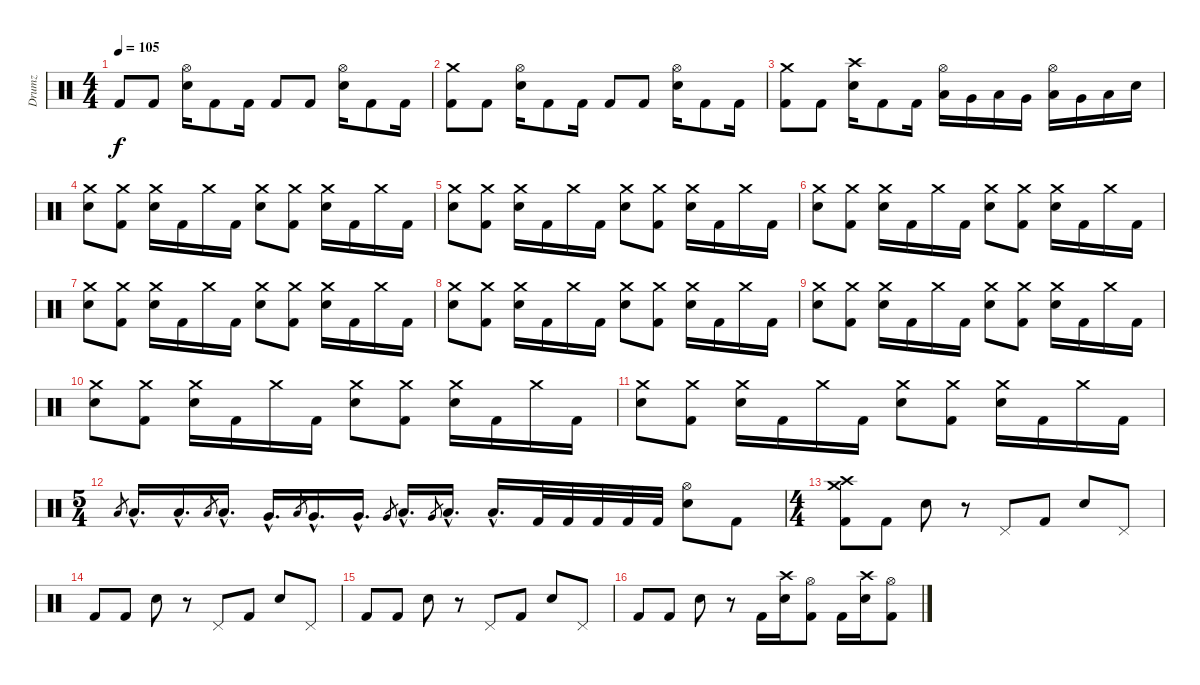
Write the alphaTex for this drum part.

\track ("Drumz" "Drumz") {instrument percussion}
\staff {score}
\articulation defaults
\ts (4 4)
\tempo 105
\clef neutral
\ks c "Kick (hit) 2".8{dy f} "Kick (hit) 2".8
("Hi-Hat (open)" "Electric Snare (hit)").16 "Kick (hit) 2".8 "Kick (hit) 2".16 "Kick (hit) 2".8 "Kick (hit) 2".8 ("Hi-Hat (open)" "Electric Snare (hit)").16 "Kick (hit) 2".8 "Kick (hit) 2".16 |
("Crash medium (hit)" "Kick (hit) 2").8 "Kick (hit) 2".8 ("Hi-Hat (open)" "Electric Snare (hit)").16 "Kick (hit) 2".8 "Kick (hit) 2".16 "Kick (hit) 2".8 "Kick (hit) 2".8 ("Hi-Hat (open)" "Electric Snare (hit)").16 "Kick (hit) 2".8 "Kick (hit) 2".16 |
("Crash medium (hit)" "Kick (hit) 2").8 "Kick (hit) 2".8 ("Crash high (hit)" "Electric Snare (hit)").16 "Kick (hit) 2".8 "Kick (hit) 2".16 ("Hi-Hat (open)" "Low Tom (hit)").16 "Very Low Tom (hit)".16 "Low Floor Tom (hit)".16 "Very Low Tom (hit)".16 ("Hi-Hat (open)" "Low Tom (hit)").16 "Very Low Tom (hit)".16 "Low Floor Tom (hit)".16 "Electric Snare (hit)".16 |
("Crash medium (hit)" "Electric Snare (hit)").8 ("Crash medium (hit)" "Kick (hit) 2").8 ("Crash medium (hit)" "Electric Snare (hit)").16 "Kick (hit) 2".16 "Crash medium (hit)".16 "Kick (hit) 2".16 ("Crash medium (hit)" "Electric Snare (hit)").8 ("Crash medium (hit)" "Kick (hit) 2").8 ("Crash medium (hit)" "Electric Snare (hit)").16 "Kick (hit) 2".16 "Crash medium (hit)".16 "Kick (hit) 2".16 |
("Crash medium (hit)" "Electric Snare (hit)").8 ("Crash medium (hit)" "Kick (hit) 2").8 ("Crash medium (hit)" "Electric Snare (hit)").16 "Kick (hit) 2".16 "Crash medium (hit)".16 "Kick (hit) 2".16 ("Crash medium (hit)" "Electric Snare (hit)").8 ("Crash medium (hit)" "Kick (hit) 2").8 ("Crash medium (hit)" "Electric Snare (hit)").16 "Kick (hit) 2".16 "Crash medium (hit)".16 "Kick (hit) 2".16 |
("Crash medium (hit)" "Electric Snare (hit)").8 ("Crash medium (hit)" "Kick (hit) 2").8 ("Crash medium (hit)" "Electric Snare (hit)").16 "Kick (hit) 2".16 "Crash medium (hit)".16 "Kick (hit) 2".16 ("Crash medium (hit)" "Electric Snare (hit)").8 ("Crash medium (hit)" "Kick (hit) 2").8 ("Crash medium (hit)" "Electric Snare (hit)").16 "Kick (hit) 2".16 "Crash medium (hit)".16 "Kick (hit) 2".16 |
("Crash medium (hit)" "Electric Snare (hit)").8 ("Crash medium (hit)" "Kick (hit) 2").8 ("Crash medium (hit)" "Electric Snare (hit)").16 "Kick (hit) 2".16 "Crash medium (hit)".16 "Kick (hit) 2".16 ("Crash medium (hit)" "Electric Snare (hit)").8 ("Crash medium (hit)" "Kick (hit) 2").8 ("Crash medium (hit)" "Electric Snare (hit)").16 "Kick (hit) 2".16 "Crash medium (hit)".16 "Kick (hit) 2".16 |
("Crash medium (hit)" "Electric Snare (hit)").8 ("Crash medium (hit)" "Kick (hit) 2").8 ("Crash medium (hit)" "Electric Snare (hit)").16 "Kick (hit) 2".16 "Crash medium (hit)".16 "Kick (hit) 2".16 ("Crash medium (hit)" "Electric Snare (hit)").8 ("Crash medium (hit)" "Kick (hit) 2").8 ("Crash medium (hit)" "Electric Snare (hit)").16 "Kick (hit) 2".16 "Crash medium (hit)".16 "Kick (hit) 2".16 |
("Crash medium (hit)" "Electric Snare (hit)").8 ("Crash medium (hit)" "Kick (hit) 2").8 ("Crash medium (hit)" "Electric Snare (hit)").16 "Kick (hit) 2".16 "Crash medium (hit)".16 "Kick (hit) 2".16 ("Crash medium (hit)" "Electric Snare (hit)").8 ("Crash medium (hit)" "Kick (hit) 2").8 ("Crash medium (hit)" "Electric Snare (hit)").16 "Kick (hit) 2".16 "Crash medium (hit)".16 "Kick (hit) 2".16 |
("Crash medium (hit)" "Electric Snare (hit)").8 ("Crash medium (hit)" "Kick (hit) 2").8 ("Crash medium (hit)" "Electric Snare (hit)").16 "Kick (hit) 2".16 "Crash medium (hit)".16 "Kick (hit) 2".16 ("Crash medium (hit)" "Electric Snare (hit)").8 ("Crash medium (hit)" "Kick (hit) 2").8 ("Crash medium (hit)" "Electric Snare (hit)").16 "Kick (hit) 2".16 "Crash medium (hit)".16 "Kick (hit) 2".16 |
("Crash medium (hit)" "Electric Snare (hit)").8 ("Crash medium (hit)" "Kick (hit) 2").8 ("Crash medium (hit)" "Electric Snare (hit)").16 "Kick (hit) 2".16 "Crash medium (hit)".16 "Kick (hit) 2".16 ("Crash medium (hit)" "Electric Snare (hit)").8 ("Crash medium (hit)" "Kick (hit) 2").8 ("Crash medium (hit)" "Electric Snare (hit)").16 "Kick (hit) 2".16 "Crash medium (hit)".16 "Kick (hit) 2".16 |
\ts (5 4)
"Low Tom (hit)".8{gr} "Low Tom (hit)"{hac}.16{d} "Low Tom (hit)"{hac}.16{d} "Low Tom (hit)".8{gr} "Low Tom (hit)"{hac}.16{d} "Very Low Tom (hit)"{hac}.16{d} "Low Tom (hit)".8{gr} "Very Low Tom (hit)"{hac}.16{d} "Very Low Tom (hit)"{hac}.16{d} "Very Low Tom (hit)".8{gr} "Low Floor Tom (hit)"{hac}.16{d} "Very Low Tom (hit)".8{gr} "Low Floor Tom (hit)"{hac}.16{d} "Low Floor Tom (hit)"{hac}.16{d} "Kick (hit) 2".32 "Kick (hit) 2".32 "Kick (hit) 2".32 "Kick (hit) 2".32 "Kick (hit) 2".32 ("Hi-Hat (open)" "Electric Snare (hit)").8 "Kick (hit) 2".8 |
\ts (4 4)
("Crash medium (hit)" "Crash high (hit)" "Kick (hit) 2").8 "Kick (hit) 2".8 "Electric Snare (hit)".8 r.8 "Pedal Hi-Hat (hit)".8 "Kick (hit) 2".8 "Electric Snare (hit)".8 "Pedal Hi-Hat (hit)".8 |
"Kick (hit) 2".8 "Kick (hit) 2".8 "Electric Snare (hit)".8 r.8 "Pedal Hi-Hat (hit)".8 "Kick (hit) 2".8 "Electric Snare (hit)".8 "Pedal Hi-Hat (hit)".8 |
"Kick (hit) 2".8 "Kick (hit) 2".8 "Electric Snare (hit)".8 r.8 "Pedal Hi-Hat (hit)".8 "Kick (hit) 2".8 "Electric Snare (hit)".8 "Pedal Hi-Hat (hit)".8 |
"Kick (hit) 2".8 "Kick (hit) 2".8 "Electric Snare (hit)".8 r.8 "Kick (hit) 2".16 ("Crash high (hit)" "Electric Snare (hit)").16 ("Hi-Hat (open)" "Kick (hit) 2").8 "Kick (hit) 2".16 ("Crash high (hit)" "Electric Snare (hit)").16 ("Hi-Hat (open)" "Kick (hit) 2").8
